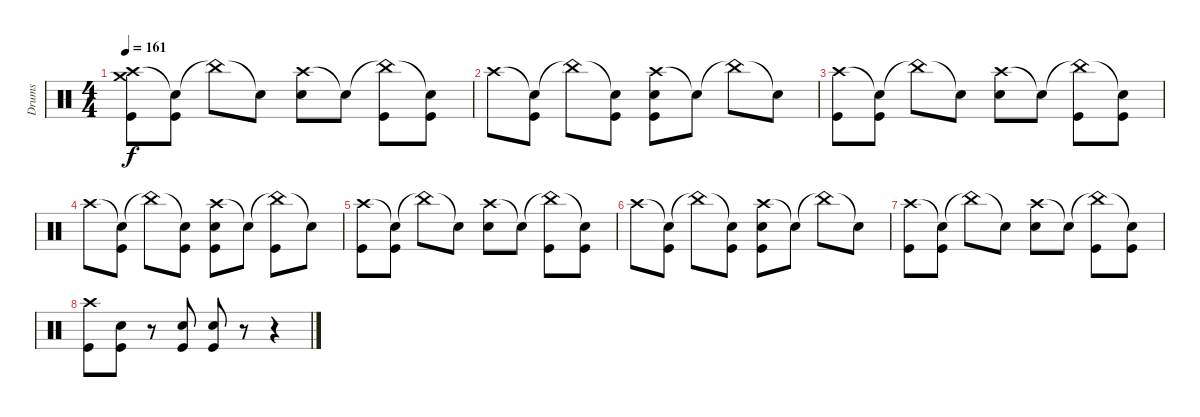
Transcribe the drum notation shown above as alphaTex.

\track ("Drums" "Drums") {instrument percussion}
\staff {score}
\articulation defaults
\ts (4 4)
\tempo 161
\clef neutral
\ks c
("Crash high (hit)" "Crash medium (hit)" "Kick (hit)").8{dy f} ("Snare (hit)"{t} "Kick (hit)").8 "China (hit)"{t}.8 "Snare (hit)"{t}.8 ("Crash high (hit)" "Snare (hit) 2").8 "Snare (hit)"{t}.8 ("China (hit)"{t} "Kick (hit)").8 ("Snare (hit)"{t} "Kick (hit)").8 |
"Crash high (hit)".8 ("Snare (hit)"{t} "Kick (hit)").8 "China (hit)"{t}.8 ("Snare (hit)"{t} "Kick (hit)").8 ("Crash high (hit)" "Snare (hit) 2" "Kick (hit)").8 "Snare (hit)"{t}.8 "China (hit)"{t}.8 "Snare (hit)"{t}.8 |
("Crash high (hit)" "Kick (hit)").8 ("Snare (hit)"{t} "Kick (hit)").8 "China (hit)"{t}.8 "Snare (hit)"{t}.8 ("Crash high (hit)" "Snare (hit) 2").8 "Snare (hit)"{t}.8 ("China (hit)"{t} "Kick (hit)").8 ("Snare (hit)"{t} "Kick (hit)").8 |
"Crash high (hit)".8 ("Snare (hit)"{t} "Kick (hit)").8 "China (hit)"{t}.8 ("Snare (hit)"{t} "Kick (hit)").8 ("Crash high (hit)" "Snare (hit) 2" "Kick (hit)").8 "Snare (hit)"{t}.8 ("China (hit)"{t} "Kick (hit)").8 "Snare (hit)"{t}.8 |
("Crash high (hit)" "Kick (hit)").8 ("Snare (hit)"{t} "Kick (hit)").8 "China (hit)"{t}.8 "Snare (hit)"{t}.8 ("Crash high (hit)" "Snare (hit) 2").8 "Snare (hit)"{t}.8 ("China (hit)"{t} "Kick (hit)").8 ("Snare (hit)"{t} "Kick (hit)").8 |
"Crash high (hit)".8 ("Snare (hit)"{t} "Kick (hit)").8 "China (hit)"{t}.8 ("Snare (hit)"{t} "Kick (hit)").8 ("Crash high (hit)" "Snare (hit) 2" "Kick (hit)").8 "Snare (hit)"{t}.8 "China (hit)"{t}.8 "Snare (hit)"{t}.8 |
("Crash high (hit)" "Kick (hit)").8 ("Snare (hit)"{t} "Kick (hit)").8 "China (hit)"{t}.8 "Snare (hit)"{t}.8 ("Crash high (hit)" "Snare (hit) 2").8 "Snare (hit)"{t}.8 ("China (hit)"{t} "Kick (hit)").8 ("Snare (hit)"{t} "Kick (hit)").8 |
("Crash high (hit)" "Kick (hit)").8 ("Snare (hit) 2" "Kick (hit)").8 r.8 ("Snare (hit) 2" "Kick (hit)").8 ("Snare (hit) 2" "Kick (hit)").8 r.8 r.4
